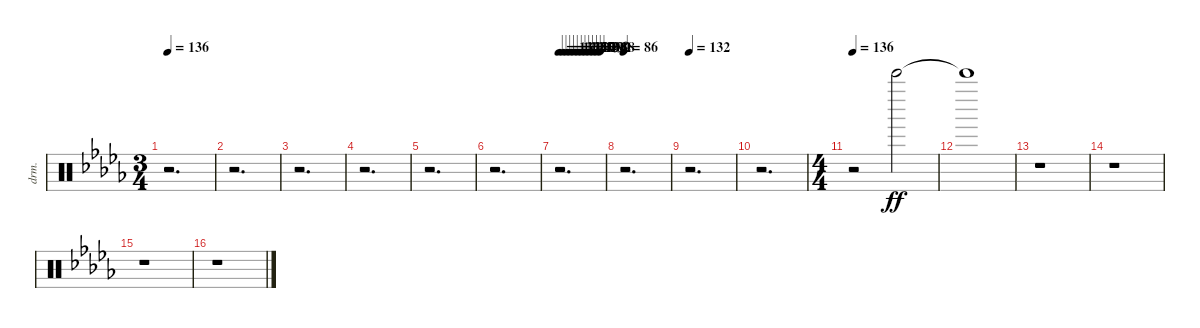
\bracketExtendMode nobrackets
\track ("Wind Chimes" "drm.") {instrument percussion}
\staff {score}
\articulation defaults
\ts (3 4)
\tempo 136
\clef neutral
\ks db
r.2{d dy ff beam Down} |
r.2{d beam Down} |
r.2{d beam Down} |
r.2{d beam Down} |
r.2{d beam Down} |
r.2{d beam Down} |
\tempo 133
\tempo (129 0.0833333)
\tempo (125 0.166667)
\tempo (121 0.25)
\tempo (117 0.333333)
\tempo (113 0.416667)
\tempo (108 0.5)
\tempo (104 0.583333)
\tempo (100 0.666667)
\tempo (96 0.75)
\tempo (92 0.833333)
\tempo (88 0.916667)
r.2{d beam Down} |
\tempo 86
r.2{d beam Down} |
\tempo 132
r.2{d beam Down} |
r.2{d beam Down} |
\ts (4 4)
\tempo 136
r.2{beam Down} "Bell Tree (hit)"{acc forcenatural}.2{beam Down} |
"Bell Tree (hit)"{t acc forcenatural}.1{beam Down} |
r.1{beam Down} |
r.1{beam Down} |
r.1{beam Down} |
r.1{beam Down}
